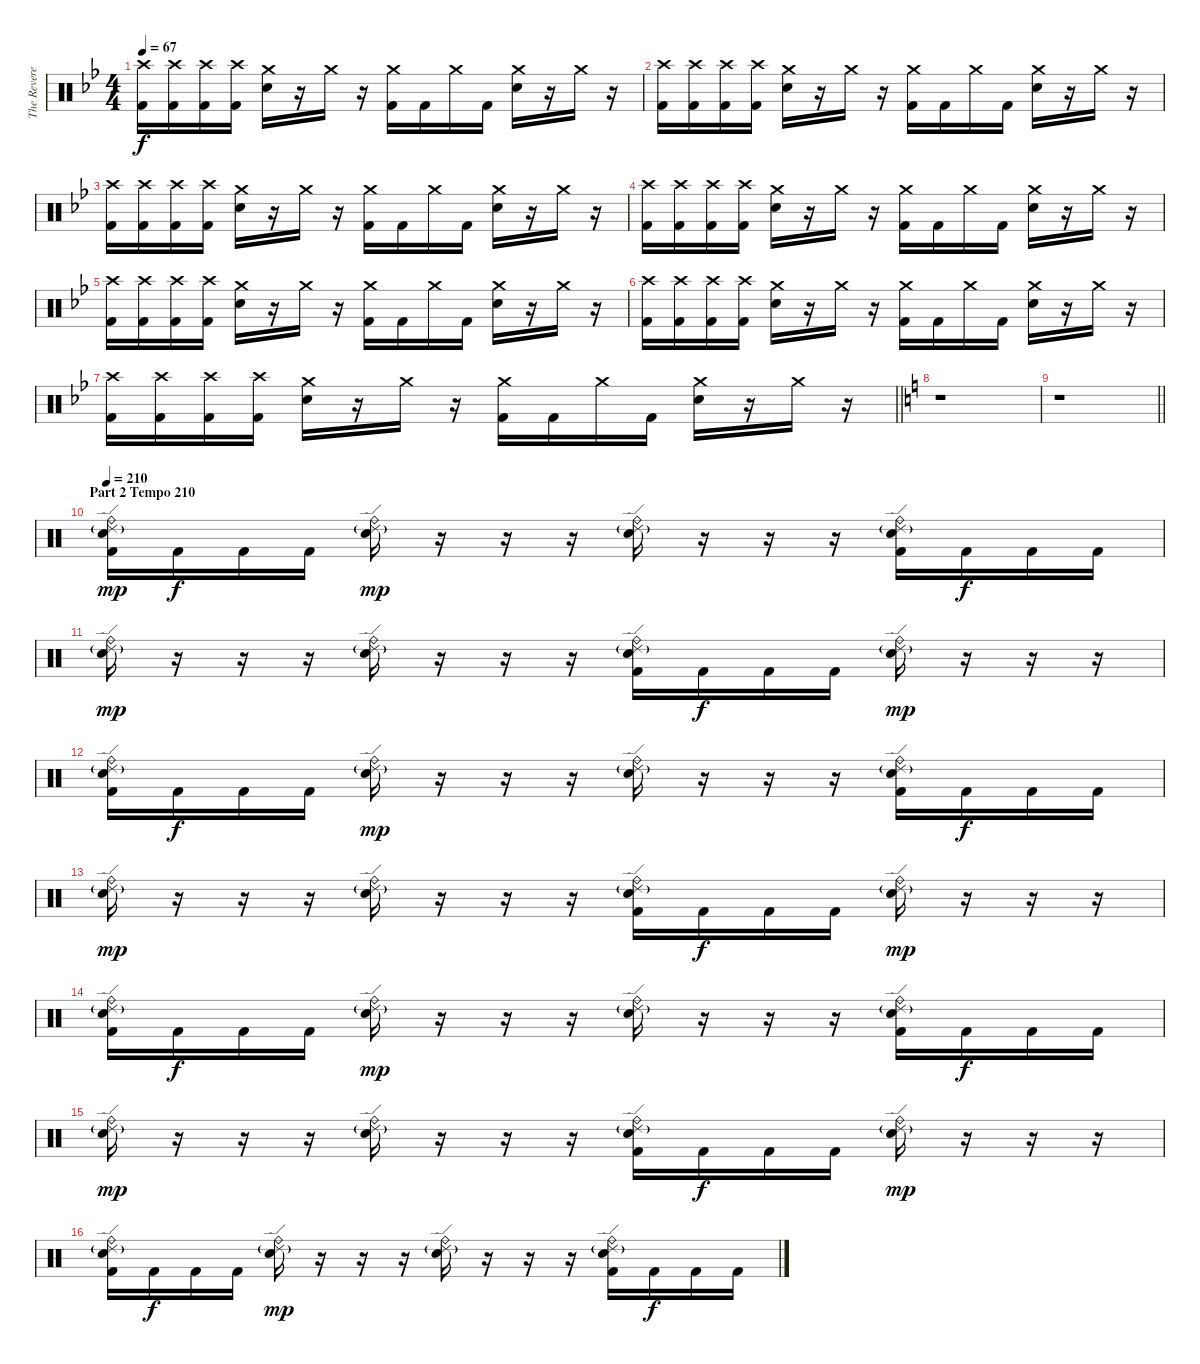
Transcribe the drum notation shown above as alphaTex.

\track ("The Reverend" "The Revere") {instrument percussion}
\staff {score}
\articulation defaults
\ts (4 4)
\tempo 67
\clef neutral
\ks bb
("Crash high (hit)" "Kick (hit) 2").16{dy f} ("Crash high (hit)" "Kick (hit) 2").16 ("Crash high (hit)" "Kick (hit) 2").16 ("Crash high (hit)" "Kick (hit) 2").16 ("Crash medium (hit)" "Electric Snare (hit)").16 r.16 "Crash medium (hit)".16 r.16 ("Crash medium (hit)" "Kick (hit) 2").16 "Kick (hit) 2".16 "Crash medium (hit)".16 "Kick (hit) 2".16 ("Crash medium (hit)" "Electric Snare (hit)").16 r.16 "Crash medium (hit)".16 r.16 |
("Crash high (hit)" "Kick (hit) 2").16 ("Crash high (hit)" "Kick (hit) 2").16 ("Crash high (hit)" "Kick (hit) 2").16 ("Crash high (hit)" "Kick (hit) 2").16 ("Crash medium (hit)" "Electric Snare (hit)").16 r.16 "Crash medium (hit)".16 r.16 ("Crash medium (hit)" "Kick (hit) 2").16 "Kick (hit) 2".16 "Crash medium (hit)".16 "Kick (hit) 2".16 ("Crash medium (hit)" "Electric Snare (hit)").16 r.16 "Crash medium (hit)".16 r.16 |
("Crash high (hit)" "Kick (hit) 2").16 ("Crash high (hit)" "Kick (hit) 2").16 ("Crash high (hit)" "Kick (hit) 2").16 ("Crash high (hit)" "Kick (hit) 2").16 ("Crash medium (hit)" "Electric Snare (hit)").16 r.16 "Crash medium (hit)".16 r.16 ("Crash medium (hit)" "Kick (hit) 2").16 "Kick (hit) 2".16 "Crash medium (hit)".16 "Kick (hit) 2".16 ("Crash medium (hit)" "Electric Snare (hit)").16 r.16 "Crash medium (hit)".16 r.16 |
("Crash high (hit)" "Kick (hit) 2").16{volume 0} ("Crash high (hit)" "Kick (hit) 2").16 ("Crash high (hit)" "Kick (hit) 2").16 ("Crash high (hit)" "Kick (hit) 2").16 ("Crash medium (hit)" "Electric Snare (hit)").16 r.16 "Crash medium (hit)".16 r.16 ("Crash medium (hit)" "Kick (hit) 2").16 "Kick (hit) 2".16 "Crash medium (hit)".16 "Kick (hit) 2".16 ("Crash medium (hit)" "Electric Snare (hit)").16 r.16 "Crash medium (hit)".16 r.16 |
("Crash high (hit)" "Kick (hit) 2").16 ("Crash high (hit)" "Kick (hit) 2").16 ("Crash high (hit)" "Kick (hit) 2").16 ("Crash high (hit)" "Kick (hit) 2").16 ("Crash medium (hit)" "Electric Snare (hit)").16 r.16 "Crash medium (hit)".16 r.16 ("Crash medium (hit)" "Kick (hit) 2").16 "Kick (hit) 2".16 "Crash medium (hit)".16 "Kick (hit) 2".16 ("Crash medium (hit)" "Electric Snare (hit)").16 r.16 "Crash medium (hit)".16 r.16 |
("Crash high (hit)" "Kick (hit) 2").16 ("Crash high (hit)" "Kick (hit) 2").16 ("Crash high (hit)" "Kick (hit) 2").16 ("Crash high (hit)" "Kick (hit) 2").16 ("Crash medium (hit)" "Electric Snare (hit)").16 r.16 "Crash medium (hit)".16 r.16 ("Crash medium (hit)" "Kick (hit) 2").16 "Kick (hit) 2".16 "Crash medium (hit)".16 "Kick (hit) 2".16 ("Crash medium (hit)" "Electric Snare (hit)").16 r.16 "Crash medium (hit)".16 r.16 |
\barLineRight lightlight
("Crash high (hit)" "Kick (hit) 2").16 ("Crash high (hit)" "Kick (hit) 2").16 ("Crash high (hit)" "Kick (hit) 2").16 ("Crash high (hit)" "Kick (hit) 2").16 ("Crash medium (hit)" "Electric Snare (hit)").16 r.16 "Crash medium (hit)".16 r.16 ("Crash medium (hit)" "Kick (hit) 2").16 "Kick (hit) 2".16 "Crash medium (hit)".16 "Kick (hit) 2".16 ("Crash medium (hit)" "Electric Snare (hit)").16 r.16 "Crash medium (hit)".16 r.16 |
\ks c
r.1 |
\barLineRight lightlight
r.1 |
\section ("" "Part 2 Tempo 210")
\tempo 210
("Ride (edge) 2"{g} "Ride (bell)" "Electric Snare (hit)" "Kick (hit) 2").16{dy mp volume 16} "Kick (hit) 2".16{dy f} "Kick (hit) 2".16 "Kick (hit) 2".16 ("Ride (edge) 2"{g} "Ride (bell)" "Electric Snare (hit)").16{dy mp} r.16 r.16 r.16 ("Ride (edge) 2"{g} "Ride (bell)" "Electric Snare (hit)").16 r.16 r.16 r.16 ("Ride (edge) 2"{g} "Ride (bell)" "Electric Snare (hit)" "Kick (hit) 2").16 "Kick (hit) 2".16{dy f} "Kick (hit) 2".16 "Kick (hit) 2".16 |
("Ride (edge) 2"{g} "Ride (bell)" "Electric Snare (hit)").16{dy mp} r.16 r.16 r.16 ("Ride (edge) 2"{g} "Ride (bell)" "Electric Snare (hit)").16 r.16 r.16 r.16 ("Ride (edge) 2"{g} "Ride (bell)" "Electric Snare (hit)" "Kick (hit) 2").16 "Kick (hit) 2".16{dy f} "Kick (hit) 2".16 "Kick (hit) 2".16 ("Ride (edge) 2"{g} "Ride (bell)" "Electric Snare (hit)").16{dy mp} r.16 r.16 r.16 |
("Ride (edge) 2"{g} "Ride (bell)" "Electric Snare (hit)" "Kick (hit) 2").16 "Kick (hit) 2".16{dy f} "Kick (hit) 2".16 "Kick (hit) 2".16 ("Ride (edge) 2"{g} "Ride (bell)" "Electric Snare (hit)").16{dy mp} r.16 r.16 r.16 ("Ride (edge) 2"{g} "Ride (bell)" "Electric Snare (hit)").16 r.16 r.16 r.16 ("Ride (edge) 2"{g} "Ride (bell)" "Electric Snare (hit)" "Kick (hit) 2").16 "Kick (hit) 2".16{dy f} "Kick (hit) 2".16 "Kick (hit) 2".16 |
("Ride (edge) 2"{g} "Ride (bell)" "Electric Snare (hit)").16{dy mp} r.16 r.16 r.16 ("Ride (edge) 2"{g} "Ride (bell)" "Electric Snare (hit)").16 r.16 r.16 r.16 ("Ride (edge) 2"{g} "Ride (bell)" "Electric Snare (hit)" "Kick (hit) 2").16 "Kick (hit) 2".16{dy f} "Kick (hit) 2".16 "Kick (hit) 2".16 ("Ride (edge) 2"{g} "Ride (bell)" "Electric Snare (hit)").16{dy mp} r.16 r.16 r.16 |
("Ride (edge) 2"{g} "Ride (bell)" "Electric Snare (hit)" "Kick (hit) 2").16 "Kick (hit) 2".16{dy f} "Kick (hit) 2".16 "Kick (hit) 2".16 ("Ride (edge) 2"{g} "Ride (bell)" "Electric Snare (hit)").16{dy mp} r.16 r.16 r.16 ("Ride (edge) 2"{g} "Ride (bell)" "Electric Snare (hit)").16 r.16 r.16 r.16 ("Ride (edge) 2"{g} "Ride (bell)" "Electric Snare (hit)" "Kick (hit) 2").16 "Kick (hit) 2".16{dy f} "Kick (hit) 2".16 "Kick (hit) 2".16 |
("Ride (edge) 2"{g} "Ride (bell)" "Electric Snare (hit)").16{dy mp} r.16 r.16 r.16 ("Ride (edge) 2"{g} "Ride (bell)" "Electric Snare (hit)").16 r.16 r.16 r.16 ("Ride (edge) 2"{g} "Ride (bell)" "Electric Snare (hit)" "Kick (hit) 2").16 "Kick (hit) 2".16{dy f} "Kick (hit) 2".16 "Kick (hit) 2".16 ("Ride (edge) 2"{g} "Ride (bell)" "Electric Snare (hit)").16{dy mp} r.16 r.16 r.16 |
("Ride (edge) 2"{g} "Ride (bell)" "Electric Snare (hit)" "Kick (hit) 2").16 "Kick (hit) 2".16{dy f} "Kick (hit) 2".16 "Kick (hit) 2".16 ("Ride (edge) 2"{g} "Ride (bell)" "Electric Snare (hit)").16{dy mp} r.16 r.16 r.16 ("Ride (edge) 2"{g} "Ride (bell)" "Electric Snare (hit)").16 r.16 r.16 r.16 ("Ride (edge) 2"{g} "Ride (bell)" "Electric Snare (hit)" "Kick (hit) 2").16 "Kick (hit) 2".16{dy f} "Kick (hit) 2".16 "Kick (hit) 2".16
